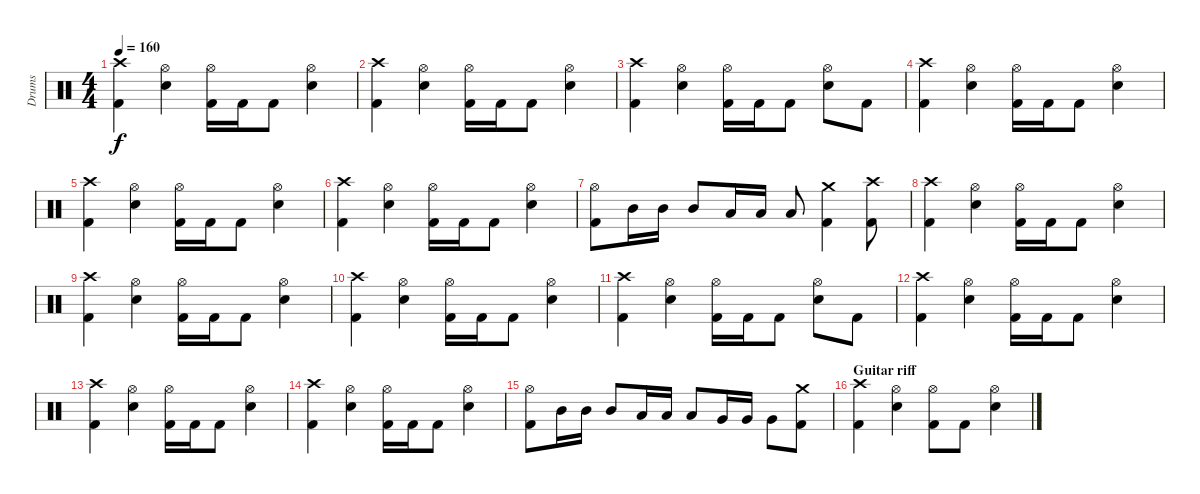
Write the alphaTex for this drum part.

\track ("Drums" "Drums") {instrument percussion}
\staff {score}
\articulation defaults
\ts (4 4)
\tempo 160
\clef neutral
\ks c
("Kick (hit) 2" "Crash high (hit)").4{dy f} ("Electric Snare (hit)" "Hi-Hat (open)").4 ("Kick (hit) 2" "Hi-Hat (open)").16 "Kick (hit) 2".16 "Kick (hit) 2".8 ("Electric Snare (hit)" "Hi-Hat (open)").4 |
("Kick (hit) 2" "Crash high (hit)").4 ("Electric Snare (hit)" "Hi-Hat (open)").4 ("Kick (hit) 2" "Hi-Hat (open)").16 "Kick (hit) 2".16 "Kick (hit) 2".8 ("Electric Snare (hit)" "Hi-Hat (open)").4 |
("Kick (hit) 2" "Crash high (hit)").4 ("Electric Snare (hit)" "Hi-Hat (open)").4 ("Kick (hit) 2" "Hi-Hat (open)").16 "Kick (hit) 2".16 "Kick (hit) 2".8 ("Electric Snare (hit)" "Hi-Hat (open)").8 "Kick (hit) 2".8 |
("Kick (hit) 2" "Crash high (hit)").4 ("Electric Snare (hit)" "Hi-Hat (open)").4 ("Kick (hit) 2" "Hi-Hat (open)").16 "Kick (hit) 2".16 "Kick (hit) 2".8 ("Electric Snare (hit)" "Hi-Hat (open)").4 |
("Kick (hit) 2" "Crash high (hit)").4 ("Electric Snare (hit)" "Hi-Hat (open)").4 ("Kick (hit) 2" "Hi-Hat (open)").16 "Kick (hit) 2".16 "Kick (hit) 2".8 ("Electric Snare (hit)" "Hi-Hat (open)").4 |
("Kick (hit) 2" "Crash high (hit)").4 ("Electric Snare (hit)" "Hi-Hat (open)").4 ("Kick (hit) 2" "Hi-Hat (open)").16 "Kick (hit) 2".16 "Kick (hit) 2".8 ("Electric Snare (hit)" "Hi-Hat (open)").4 |
("Kick (hit) 2" "Hi-Hat (open)").8 "Mid Tom (hit)".16 "Mid Tom (hit)".16 "Mid Tom (hit)".8 "Low Tom (hit)".16 "Low Tom (hit)".16 "Low Tom (hit)".8 ("Kick (hit) 2" "Crash medium (hit)").4 ("Kick (hit) 2" "Crash high (hit)").8 |
("Kick (hit) 2" "Crash high (hit)").4 ("Electric Snare (hit)" "Hi-Hat (open)").4 ("Kick (hit) 2" "Hi-Hat (open)").16 "Kick (hit) 2".16 "Kick (hit) 2".8 ("Electric Snare (hit)" "Hi-Hat (open)").4 |
("Kick (hit) 2" "Crash high (hit)").4 ("Electric Snare (hit)" "Hi-Hat (open)").4 ("Kick (hit) 2" "Hi-Hat (open)").16 "Kick (hit) 2".16 "Kick (hit) 2".8 ("Electric Snare (hit)" "Hi-Hat (open)").4 |
("Kick (hit) 2" "Crash high (hit)").4 ("Electric Snare (hit)" "Hi-Hat (open)").4 ("Kick (hit) 2" "Hi-Hat (open)").16 "Kick (hit) 2".16 "Kick (hit) 2".8 ("Electric Snare (hit)" "Hi-Hat (open)").4 |
("Kick (hit) 2" "Crash high (hit)").4 ("Electric Snare (hit)" "Hi-Hat (open)").4 ("Kick (hit) 2" "Hi-Hat (open)").16 "Kick (hit) 2".16 "Kick (hit) 2".8 ("Electric Snare (hit)" "Hi-Hat (open)").8 "Kick (hit) 2".8 |
("Kick (hit) 2" "Crash high (hit)").4 ("Electric Snare (hit)" "Hi-Hat (open)").4 ("Kick (hit) 2" "Hi-Hat (open)").16 "Kick (hit) 2".16 "Kick (hit) 2".8 ("Electric Snare (hit)" "Hi-Hat (open)").4 |
("Kick (hit) 2" "Crash high (hit)").4 ("Electric Snare (hit)" "Hi-Hat (open)").4 ("Kick (hit) 2" "Hi-Hat (open)").16 "Kick (hit) 2".16 "Kick (hit) 2".8 ("Electric Snare (hit)" "Hi-Hat (open)").4 |
("Kick (hit) 2" "Crash high (hit)").4 ("Electric Snare (hit)" "Hi-Hat (open)").4 ("Kick (hit) 2" "Hi-Hat (open)").16 "Kick (hit) 2".16 "Kick (hit) 2".8 ("Electric Snare (hit)" "Hi-Hat (open)").4 |
("Kick (hit) 2" "Hi-Hat (open)").8 "Mid Tom (hit)".16 "Mid Tom (hit)".16 "Mid Tom (hit)".8 "Low Tom (hit)".16 "Low Tom (hit)".16 "Low Tom (hit)".8 "Very Low Tom (hit)".16 "Very Low Tom (hit)".16 "Very Low Tom (hit)".8 ("Kick (hit) 2" "Crash medium (hit)").8 |
\section ("" "Guitar riff")
("Kick (hit) 2" "Crash high (hit)").4 ("Electric Snare (hit)" "Hi-Hat (open)").4 ("Kick (hit) 2" "Hi-Hat (open)").8 "Kick (hit) 2".8 ("Electric Snare (hit)" "Hi-Hat (open)").4
